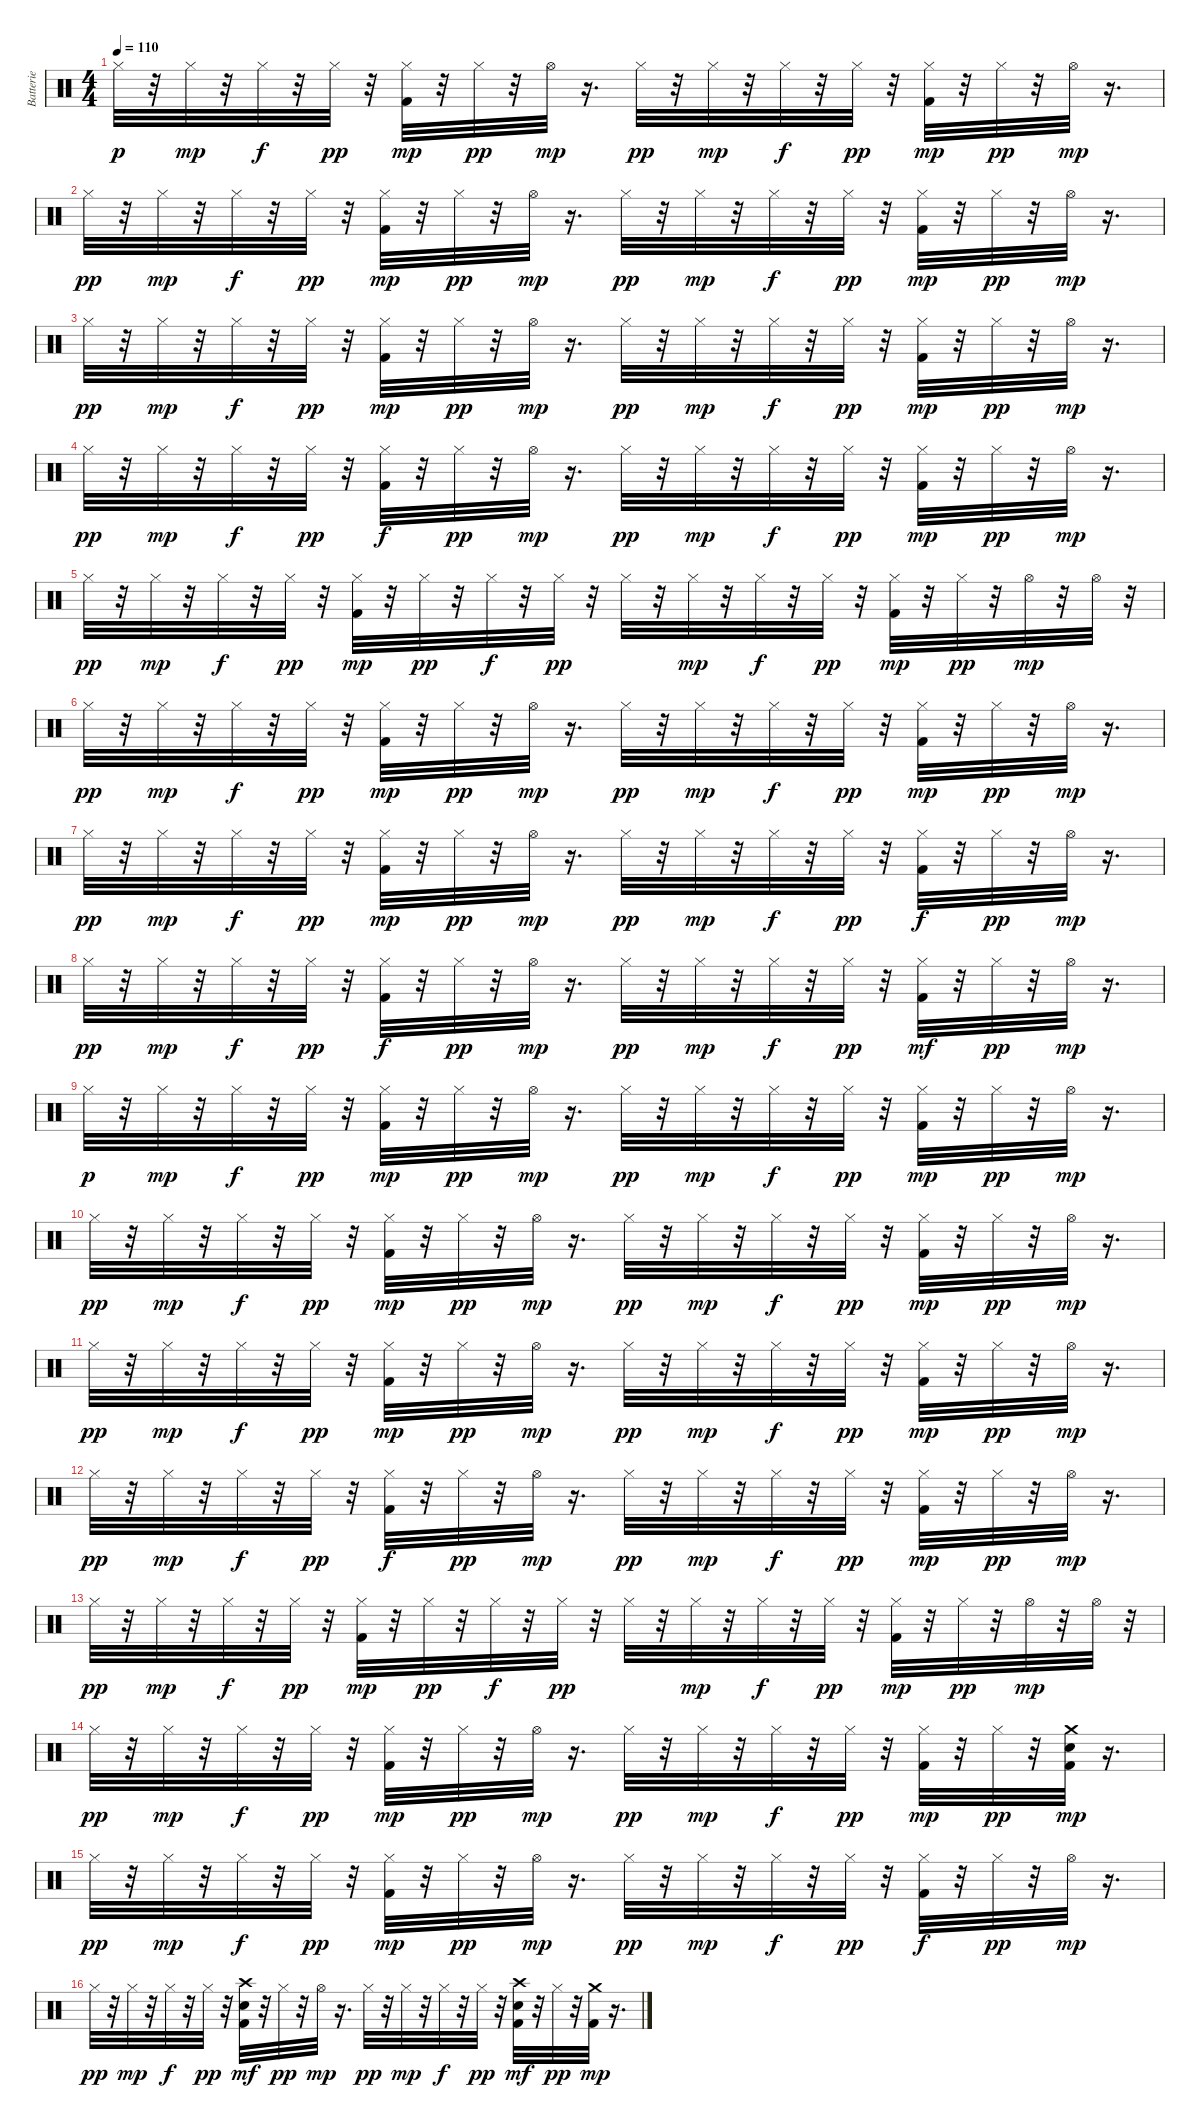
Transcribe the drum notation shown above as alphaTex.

\track ("Batterie" "Batterie") {instrument percussion}
\staff {score}
\articulation defaults
\ts (4 4)
\tempo 110
\clef neutral
\ks c "Hi-Hat (closed)".32{dy p}
r.32 "Hi-Hat (closed)".32{dy mp} r.32 "Hi-Hat (closed)".32{dy f} r.32 "Hi-Hat (closed)".32{dy pp} r.32 ("Kick (hit) 2" "Hi-Hat (closed)").32{dy mp} r.32 "Hi-Hat (closed)".32{dy pp} r.32 "Hi-Hat (open)".32{dy mp} r.16{d} "Hi-Hat (closed)".32{dy pp} r.32 "Hi-Hat (closed)".32{dy mp} r.32 "Hi-Hat (closed)".32{dy f} r.32 "Hi-Hat (closed)".32{dy pp} r.32 ("Kick (hit) 2" "Hi-Hat (closed)").32{dy mp} r.32 "Hi-Hat (closed)".32{dy pp} r.32 "Hi-Hat (open)".32{dy mp} r.16{d} |
"Hi-Hat (closed)".32{dy pp} r.32 "Hi-Hat (closed)".32{dy mp} r.32 "Hi-Hat (closed)".32{dy f} r.32 "Hi-Hat (closed)".32{dy pp} r.32 ("Kick (hit) 2" "Hi-Hat (closed)").32{dy mp} r.32 "Hi-Hat (closed)".32{dy pp} r.32 "Hi-Hat (open)".32{dy mp} r.16{d} "Hi-Hat (closed)".32{dy pp} r.32 "Hi-Hat (closed)".32{dy mp} r.32 "Hi-Hat (closed)".32{dy f} r.32 "Hi-Hat (closed)".32{dy pp} r.32 ("Kick (hit) 2" "Hi-Hat (closed)").32{dy mp} r.32 "Hi-Hat (closed)".32{dy pp} r.32 "Hi-Hat (open)".32{dy mp} r.16{d} |
"Hi-Hat (closed)".32{dy pp} r.32 "Hi-Hat (closed)".32{dy mp} r.32 "Hi-Hat (closed)".32{dy f} r.32 "Hi-Hat (closed)".32{dy pp} r.32 ("Kick (hit) 2" "Hi-Hat (closed)").32{dy mp} r.32 "Hi-Hat (closed)".32{dy pp} r.32 "Hi-Hat (open)".32{dy mp} r.16{d} "Hi-Hat (closed)".32{dy pp} r.32 "Hi-Hat (closed)".32{dy mp} r.32 "Hi-Hat (closed)".32{dy f} r.32 "Hi-Hat (closed)".32{dy pp} r.32 ("Kick (hit) 2" "Hi-Hat (closed)").32{dy mp} r.32 "Hi-Hat (closed)".32{dy pp} r.32 "Hi-Hat (open)".32{dy mp} r.16{d} |
"Hi-Hat (closed)".32{dy pp} r.32 "Hi-Hat (closed)".32{dy mp} r.32 "Hi-Hat (closed)".32{dy f} r.32 "Hi-Hat (closed)".32{dy pp} r.32 ("Kick (hit) 2" "Hi-Hat (closed)").32{dy f} r.32 "Hi-Hat (closed)".32{dy pp} r.32 "Hi-Hat (open)".32{dy mp} r.16{d} "Hi-Hat (closed)".32{dy pp} r.32 "Hi-Hat (closed)".32{dy mp} r.32 "Hi-Hat (closed)".32{dy f} r.32 "Hi-Hat (closed)".32{dy pp} r.32 ("Kick (hit) 2" "Hi-Hat (closed)").32{dy mp} r.32 "Hi-Hat (closed)".32{dy pp} r.32 "Hi-Hat (open)".32{dy mp} r.16{d} |
"Hi-Hat (closed)".32{dy pp} r.32 "Hi-Hat (closed)".32{dy mp} r.32 "Hi-Hat (closed)".32{dy f} r.32 "Hi-Hat (closed)".32{dy pp} r.32 ("Kick (hit) 2" "Hi-Hat (closed)").32{dy mp} r.32 "Hi-Hat (closed)".32{dy pp} r.32 "Hi-Hat (closed)".32{dy f} r.32 "Hi-Hat (closed)".32{dy pp} r.32 "Hi-Hat (closed)".32 r.32 "Hi-Hat (closed)".32{dy mp} r.32 "Hi-Hat (closed)".32{dy f} r.32 "Hi-Hat (closed)".32{dy pp} r.32 ("Kick (hit) 2" "Hi-Hat (closed)").32{dy mp} r.32 "Hi-Hat (closed)".32{dy pp} r.32 "Hi-Hat (open)".32{dy mp} r.32 "Hi-Hat (open)".32 r.32 |
"Hi-Hat (closed)".32{dy pp} r.32 "Hi-Hat (closed)".32{dy mp} r.32 "Hi-Hat (closed)".32{dy f} r.32 "Hi-Hat (closed)".32{dy pp} r.32 ("Kick (hit) 2" "Hi-Hat (closed)").32{dy mp} r.32 "Hi-Hat (closed)".32{dy pp} r.32 "Hi-Hat (open)".32{dy mp} r.16{d} "Hi-Hat (closed)".32{dy pp} r.32 "Hi-Hat (closed)".32{dy mp} r.32 "Hi-Hat (closed)".32{dy f} r.32 "Hi-Hat (closed)".32{dy pp} r.32 ("Kick (hit) 2" "Hi-Hat (closed)").32{dy mp} r.32 "Hi-Hat (closed)".32{dy pp} r.32 "Hi-Hat (open)".32{dy mp} r.16{d} |
"Hi-Hat (closed)".32{dy pp} r.32 "Hi-Hat (closed)".32{dy mp} r.32 "Hi-Hat (closed)".32{dy f} r.32 "Hi-Hat (closed)".32{dy pp} r.32 ("Kick (hit) 2" "Hi-Hat (closed)").32{dy mp} r.32 "Hi-Hat (closed)".32{dy pp} r.32 "Hi-Hat (open)".32{dy mp} r.16{d} "Hi-Hat (closed)".32{dy pp} r.32 "Hi-Hat (closed)".32{dy mp} r.32 "Hi-Hat (closed)".32{dy f} r.32 "Hi-Hat (closed)".32{dy pp} r.32 ("Kick (hit) 2" "Hi-Hat (closed)").32{dy f} r.32 "Hi-Hat (closed)".32{dy pp} r.32 "Hi-Hat (open)".32{dy mp} r.16{d} |
"Hi-Hat (closed)".32{dy pp} r.32 "Hi-Hat (closed)".32{dy mp} r.32 "Hi-Hat (closed)".32{dy f} r.32 "Hi-Hat (closed)".32{dy pp} r.32 ("Kick (hit) 2" "Hi-Hat (closed)").32{dy f} r.32 "Hi-Hat (closed)".32{dy pp} r.32 "Hi-Hat (open)".32{dy mp} r.16{d} "Hi-Hat (closed)".32{dy pp} r.32 "Hi-Hat (closed)".32{dy mp} r.32 "Hi-Hat (closed)".32{dy f} r.32 "Hi-Hat (closed)".32{dy pp} r.32 ("Kick (hit) 2" "Hi-Hat (closed)").32{dy mf} r.32 "Hi-Hat (closed)".32{dy pp} r.32 "Hi-Hat (open)".32{dy mp} r.16{d} |
"Hi-Hat (closed)".32{dy p} r.32 "Hi-Hat (closed)".32{dy mp} r.32 "Hi-Hat (closed)".32{dy f} r.32 "Hi-Hat (closed)".32{dy pp} r.32 ("Kick (hit) 2" "Hi-Hat (closed)").32{dy mp} r.32 "Hi-Hat (closed)".32{dy pp} r.32 "Hi-Hat (open)".32{dy mp} r.16{d} "Hi-Hat (closed)".32{dy pp} r.32 "Hi-Hat (closed)".32{dy mp} r.32 "Hi-Hat (closed)".32{dy f} r.32 "Hi-Hat (closed)".32{dy pp} r.32 ("Kick (hit) 2" "Hi-Hat (closed)").32{dy mp} r.32 "Hi-Hat (closed)".32{dy pp} r.32 "Hi-Hat (open)".32{dy mp} r.16{d} |
"Hi-Hat (closed)".32{dy pp} r.32 "Hi-Hat (closed)".32{dy mp} r.32 "Hi-Hat (closed)".32{dy f} r.32 "Hi-Hat (closed)".32{dy pp} r.32 ("Kick (hit) 2" "Hi-Hat (closed)").32{dy mp} r.32 "Hi-Hat (closed)".32{dy pp} r.32 "Hi-Hat (open)".32{dy mp} r.16{d} "Hi-Hat (closed)".32{dy pp} r.32 "Hi-Hat (closed)".32{dy mp} r.32 "Hi-Hat (closed)".32{dy f} r.32 "Hi-Hat (closed)".32{dy pp} r.32 ("Kick (hit) 2" "Hi-Hat (closed)").32{dy mp} r.32 "Hi-Hat (closed)".32{dy pp} r.32 "Hi-Hat (open)".32{dy mp} r.16{d} |
"Hi-Hat (closed)".32{dy pp} r.32 "Hi-Hat (closed)".32{dy mp} r.32 "Hi-Hat (closed)".32{dy f} r.32 "Hi-Hat (closed)".32{dy pp} r.32 ("Kick (hit) 2" "Hi-Hat (closed)").32{dy mp} r.32 "Hi-Hat (closed)".32{dy pp} r.32 "Hi-Hat (open)".32{dy mp} r.16{d} "Hi-Hat (closed)".32{dy pp} r.32 "Hi-Hat (closed)".32{dy mp} r.32 "Hi-Hat (closed)".32{dy f} r.32 "Hi-Hat (closed)".32{dy pp} r.32 ("Kick (hit) 2" "Hi-Hat (closed)").32{dy mp} r.32 "Hi-Hat (closed)".32{dy pp} r.32 "Hi-Hat (open)".32{dy mp} r.16{d} |
"Hi-Hat (closed)".32{dy pp} r.32 "Hi-Hat (closed)".32{dy mp} r.32 "Hi-Hat (closed)".32{dy f} r.32 "Hi-Hat (closed)".32{dy pp} r.32 ("Kick (hit) 2" "Hi-Hat (closed)").32{dy f} r.32 "Hi-Hat (closed)".32{dy pp} r.32 "Hi-Hat (open)".32{dy mp} r.16{d} "Hi-Hat (closed)".32{dy pp} r.32 "Hi-Hat (closed)".32{dy mp} r.32 "Hi-Hat (closed)".32{dy f} r.32 "Hi-Hat (closed)".32{dy pp} r.32 ("Kick (hit) 2" "Hi-Hat (closed)").32{dy mp} r.32 "Hi-Hat (closed)".32{dy pp} r.32 "Hi-Hat (open)".32{dy mp} r.16{d} |
"Hi-Hat (closed)".32{dy pp} r.32 "Hi-Hat (closed)".32{dy mp} r.32 "Hi-Hat (closed)".32{dy f} r.32 "Hi-Hat (closed)".32{dy pp} r.32 ("Kick (hit) 2" "Hi-Hat (closed)").32{dy mp} r.32 "Hi-Hat (closed)".32{dy pp} r.32 "Hi-Hat (closed)".32{dy f} r.32 "Hi-Hat (closed)".32{dy pp} r.32 "Hi-Hat (closed)".32 r.32 "Hi-Hat (closed)".32{dy mp} r.32 "Hi-Hat (closed)".32{dy f} r.32 "Hi-Hat (closed)".32{dy pp} r.32 ("Kick (hit) 2" "Hi-Hat (closed)").32{dy mp} r.32 "Hi-Hat (closed)".32{dy pp} r.32 "Hi-Hat (open)".32{dy mp} r.32 "Hi-Hat (open)".32 r.32 |
"Hi-Hat (closed)".32{dy pp} r.32 "Hi-Hat (closed)".32{dy mp} r.32 "Hi-Hat (closed)".32{dy f} r.32 "Hi-Hat (closed)".32{dy pp} r.32 ("Kick (hit) 2" "Hi-Hat (closed)").32{dy mp} r.32 "Hi-Hat (closed)".32{dy pp} r.32 "Hi-Hat (open)".32{dy mp} r.16{d} "Hi-Hat (closed)".32{dy pp} r.32 "Hi-Hat (closed)".32{dy mp} r.32 "Hi-Hat (closed)".32{dy f} r.32 "Hi-Hat (closed)".32{dy pp} r.32 ("Kick (hit) 2" "Hi-Hat (closed)").32{dy mp} r.32 "Hi-Hat (closed)".32{dy pp} r.32 ("Kick (hit) 2" "Electric Snare (hit)" "Crash medium (hit)").32{dy mp} r.16{d} |
"Hi-Hat (closed)".32{dy pp} r.32 "Hi-Hat (closed)".32{dy mp} r.32 "Hi-Hat (closed)".32{dy f} r.32 "Hi-Hat (closed)".32{dy pp} r.32 ("Kick (hit) 2" "Hi-Hat (closed)").32{dy mp} r.32 "Hi-Hat (closed)".32{dy pp} r.32 "Hi-Hat (open)".32{dy mp} r.16{d} "Hi-Hat (closed)".32{dy pp} r.32 "Hi-Hat (closed)".32{dy mp} r.32 "Hi-Hat (closed)".32{dy f} r.32 "Hi-Hat (closed)".32{dy pp} r.32 ("Kick (hit) 2" "Hi-Hat (closed)").32{dy f} r.32 "Hi-Hat (closed)".32{dy pp} r.32 "Hi-Hat (open)".32{dy mp} r.16{d} |
"Hi-Hat (closed)".32{dy pp} r.32 "Hi-Hat (closed)".32{dy mp} r.32 "Hi-Hat (closed)".32{dy f} r.32 "Hi-Hat (closed)".32{dy pp} r.32 ("Kick (hit) 2" "Electric Snare (hit)" "Crash high (hit)").32{dy mf} r.32 "Hi-Hat (closed)".32{dy pp} r.32 "Hi-Hat (open)".32{dy mp} r.16{d} "Hi-Hat (closed)".32{dy pp} r.32 "Hi-Hat (closed)".32{dy mp} r.32 "Hi-Hat (closed)".32{dy f} r.32 "Hi-Hat (closed)".32{dy pp} r.32 ("Kick (hit) 2" "Electric Snare (hit)" "Crash high (hit)").32{dy mf} r.32 "Hi-Hat (closed)".32{dy pp} r.32 ("Kick (hit) 2" "Crash medium (hit)").32{dy mp} r.16{d}
